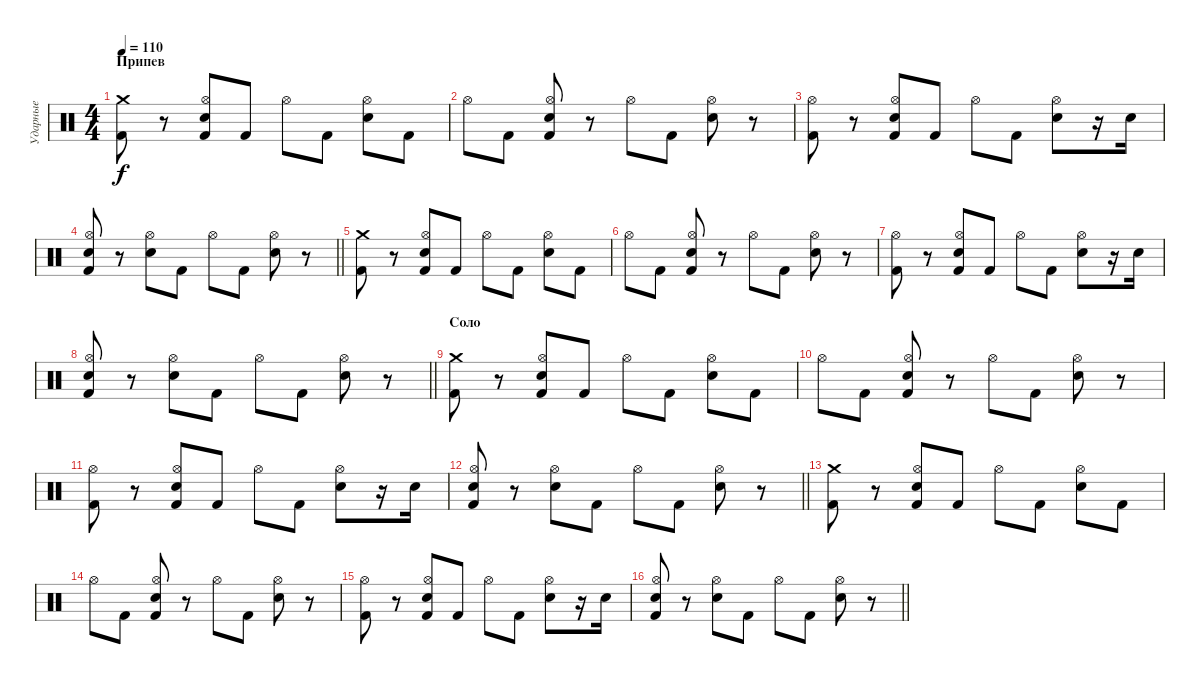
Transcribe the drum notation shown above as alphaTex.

\track ("Ударные" "Ударные") {instrument percussion}
\staff {score}
\articulation defaults
\ts (4 4)
\section ("" "Припев")
\tempo 110
\clef neutral
\ks c
("Crash medium (hit)" "Kick (hit) 2").8{dy f} r.8 ("Hi-Hat (open)" "Electric Snare (hit)" "Kick (hit) 2").8 "Kick (hit) 2".8 "Hi-Hat (open)".8 "Kick (hit) 2".8 ("Hi-Hat (open)" "Electric Snare (hit)").8 "Kick (hit) 2".8 |
"Hi-Hat (open)".8 "Kick (hit) 2".8 ("Hi-Hat (open)" "Electric Snare (hit)" "Kick (hit) 2").8 r.8 "Hi-Hat (open)".8 "Kick (hit) 2".8 ("Hi-Hat (open)" "Electric Snare (hit)").8 r.8 |
("Hi-Hat (open)" "Kick (hit) 2").8 r.8 ("Hi-Hat (open)" "Electric Snare (hit)" "Kick (hit) 2").8 "Kick (hit) 2".8 "Hi-Hat (open)".8 "Kick (hit) 2".8 ("Hi-Hat (open)" "Electric Snare (hit)").8 r.16 "Electric Snare (hit)".16 |
\barLineRight lightlight
("Hi-Hat (open)" "Electric Snare (hit)" "Kick (hit) 2").8 r.8 ("Hi-Hat (open)" "Electric Snare (hit)").8 "Kick (hit) 2".8 "Hi-Hat (open)".8 "Kick (hit) 2".8 ("Hi-Hat (open)" "Electric Snare (hit)").8 r.8 |
("Crash medium (hit)" "Kick (hit) 2").8 r.8 ("Hi-Hat (open)" "Electric Snare (hit)" "Kick (hit) 2").8 "Kick (hit) 2".8 "Hi-Hat (open)".8 "Kick (hit) 2".8 ("Hi-Hat (open)" "Electric Snare (hit)").8 "Kick (hit) 2".8 |
"Hi-Hat (open)".8 "Kick (hit) 2".8 ("Hi-Hat (open)" "Electric Snare (hit)" "Kick (hit) 2").8 r.8 "Hi-Hat (open)".8 "Kick (hit) 2".8 ("Hi-Hat (open)" "Electric Snare (hit)").8 r.8 |
("Hi-Hat (open)" "Kick (hit) 2").8 r.8 ("Hi-Hat (open)" "Electric Snare (hit)" "Kick (hit) 2").8 "Kick (hit) 2".8 "Hi-Hat (open)".8 "Kick (hit) 2".8 ("Hi-Hat (open)" "Electric Snare (hit)").8 r.16 "Electric Snare (hit)".16 |
\barLineRight lightlight
("Hi-Hat (open)" "Electric Snare (hit)" "Kick (hit) 2").8 r.8 ("Hi-Hat (open)" "Electric Snare (hit)").8 "Kick (hit) 2".8 "Hi-Hat (open)".8 "Kick (hit) 2".8 ("Hi-Hat (open)" "Electric Snare (hit)").8 r.8 |
\section ("" "Соло")
("Crash medium (hit)" "Kick (hit) 2").8 r.8 ("Hi-Hat (open)" "Electric Snare (hit)" "Kick (hit) 2").8 "Kick (hit) 2".8 "Hi-Hat (open)".8 "Kick (hit) 2".8 ("Hi-Hat (open)" "Electric Snare (hit)").8 "Kick (hit) 2".8 |
"Hi-Hat (open)".8 "Kick (hit) 2".8 ("Hi-Hat (open)" "Electric Snare (hit)" "Kick (hit) 2").8 r.8 "Hi-Hat (open)".8 "Kick (hit) 2".8 ("Hi-Hat (open)" "Electric Snare (hit)").8 r.8 |
("Hi-Hat (open)" "Kick (hit) 2").8 r.8 ("Hi-Hat (open)" "Electric Snare (hit)" "Kick (hit) 2").8 "Kick (hit) 2".8 "Hi-Hat (open)".8 "Kick (hit) 2".8 ("Hi-Hat (open)" "Electric Snare (hit)").8 r.16 "Electric Snare (hit)".16 |
\barLineRight lightlight
("Hi-Hat (open)" "Electric Snare (hit)" "Kick (hit) 2").8 r.8 ("Hi-Hat (open)" "Electric Snare (hit)").8 "Kick (hit) 2".8 "Hi-Hat (open)".8 "Kick (hit) 2".8 ("Hi-Hat (open)" "Electric Snare (hit)").8 r.8 |
("Crash medium (hit)" "Kick (hit) 2").8 r.8 ("Hi-Hat (open)" "Electric Snare (hit)" "Kick (hit) 2").8 "Kick (hit) 2".8 "Hi-Hat (open)".8 "Kick (hit) 2".8 ("Hi-Hat (open)" "Electric Snare (hit)").8 "Kick (hit) 2".8 |
"Hi-Hat (open)".8 "Kick (hit) 2".8 ("Hi-Hat (open)" "Electric Snare (hit)" "Kick (hit) 2").8 r.8 "Hi-Hat (open)".8 "Kick (hit) 2".8 ("Hi-Hat (open)" "Electric Snare (hit)").8 r.8 |
("Hi-Hat (open)" "Kick (hit) 2").8 r.8 ("Hi-Hat (open)" "Electric Snare (hit)" "Kick (hit) 2").8 "Kick (hit) 2".8 "Hi-Hat (open)".8 "Kick (hit) 2".8 ("Hi-Hat (open)" "Electric Snare (hit)").8 r.16 "Electric Snare (hit)".16 |
\barLineRight lightlight
("Hi-Hat (open)" "Electric Snare (hit)" "Kick (hit) 2").8 r.8 ("Hi-Hat (open)" "Electric Snare (hit)").8 "Kick (hit) 2".8 "Hi-Hat (open)".8 "Kick (hit) 2".8 ("Hi-Hat (open)" "Electric Snare (hit)").8 r.8
